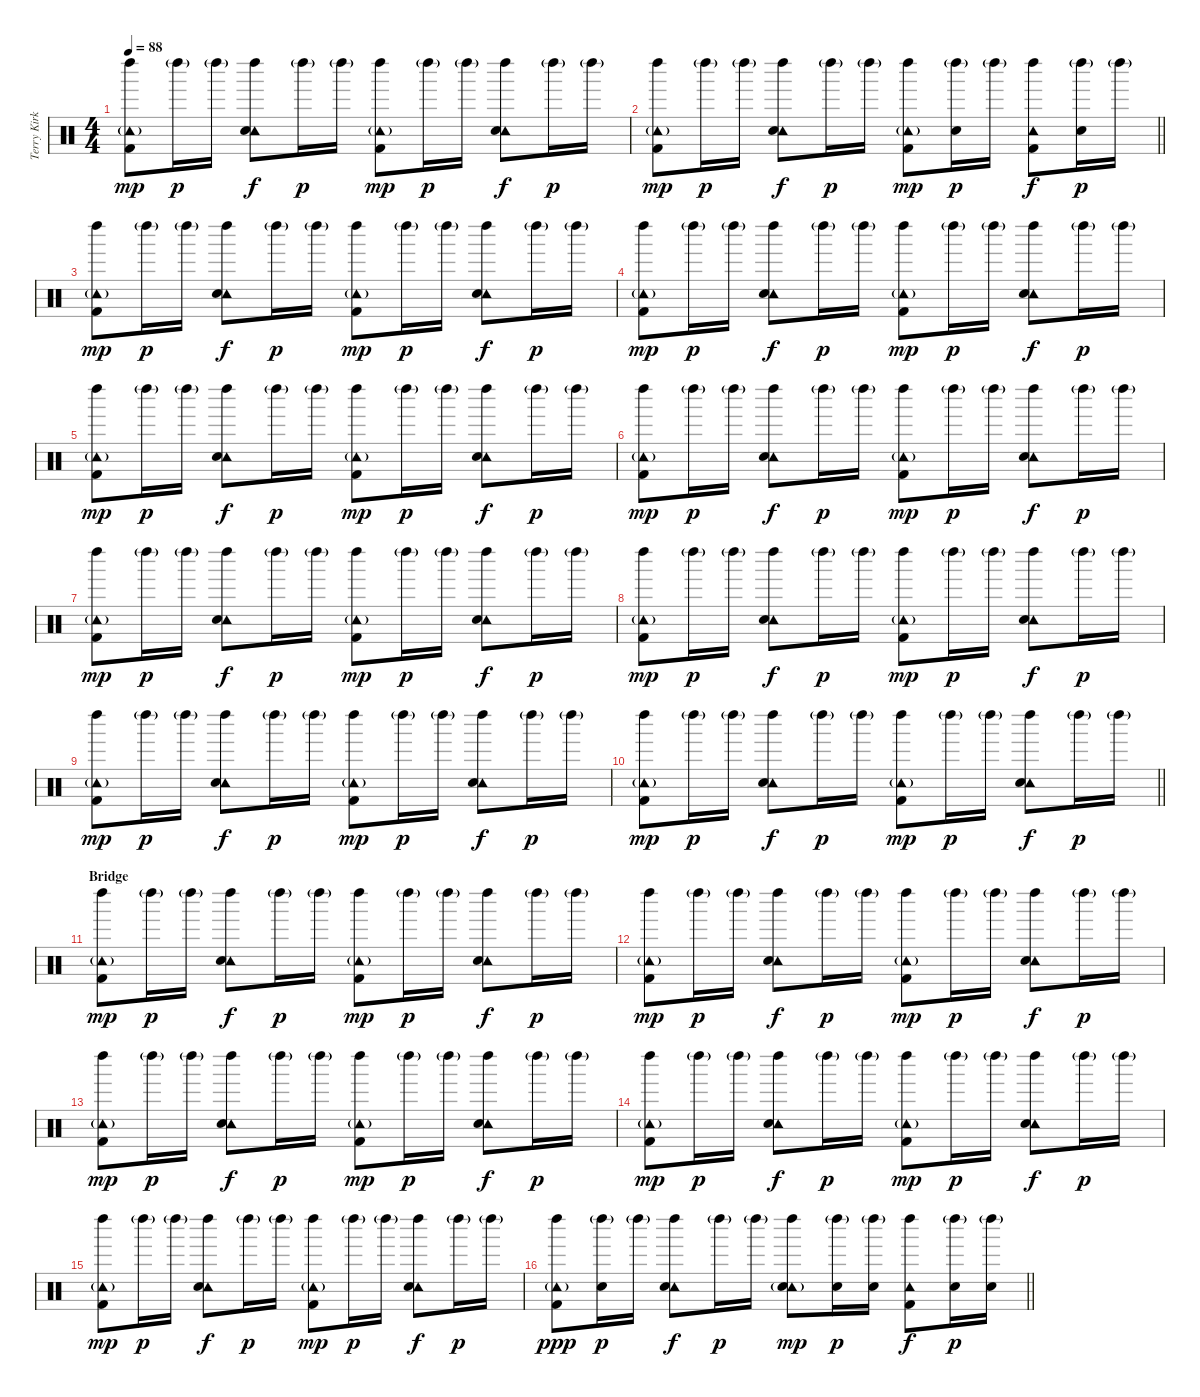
\track ("Terry Kirkbride " "Terry Kirk") {instrument percussion}
\staff {score}
\articulation defaults
\ts (4 4)
\tempo 88
\clef neutral
\ks c
("Left Maraca (hit)" "Tambourine (hit)"{g} "Kick (hit) 2").8{dy mp} "Left Maraca (hit)"{g}.16{dy p} "Left Maraca (hit)"{g}.16 ("Left Maraca (hit)" "Tambourine (hit)" "Snare (hit) 2").8{dy f} "Left Maraca (hit)"{g}.16{dy p} "Left Maraca (hit)"{g}.16 ("Left Maraca (hit)" "Tambourine (hit)"{g} "Kick (hit) 2").8{dy mp} "Left Maraca (hit)"{g}.16{dy p} "Left Maraca (hit)"{g}.16 ("Left Maraca (hit)" "Tambourine (hit)" "Snare (hit) 2").8{dy f} "Left Maraca (hit)"{g}.16{dy p} "Left Maraca (hit)"{g}.16 |
\barLineRight lightlight
("Left Maraca (hit)" "Tambourine (hit)"{g} "Kick (hit) 2").8{dy mp} "Left Maraca (hit)"{g}.16{dy p} "Left Maraca (hit)"{g}.16 ("Left Maraca (hit)" "Tambourine (hit)" "Snare (hit) 2").8{dy f} "Left Maraca (hit)"{g}.16{dy p} "Left Maraca (hit)"{g}.16 ("Left Maraca (hit)" "Tambourine (hit)"{g} "Kick (hit) 2").8{dy mp} ("Left Maraca (hit)"{g} "Snare (hit) 2").16{dy p} "Left Maraca (hit)"{g}.16 ("Left Maraca (hit)" "Tambourine (hit)" "Kick (hit) 2").8{dy f} ("Left Maraca (hit)"{g} "Snare (hit) 2").16{dy p} "Left Maraca (hit)"{g}.16 |
("Left Maraca (hit)" "Tambourine (hit)"{g} "Kick (hit) 2").8{dy mp} "Left Maraca (hit)"{g}.16{dy p} "Left Maraca (hit)"{g}.16 ("Left Maraca (hit)" "Tambourine (hit)" "Snare (hit) 2").8{dy f} "Left Maraca (hit)"{g}.16{dy p} "Left Maraca (hit)"{g}.16 ("Left Maraca (hit)" "Tambourine (hit)"{g} "Kick (hit) 2").8{dy mp} "Left Maraca (hit)"{g}.16{dy p} "Left Maraca (hit)"{g}.16 ("Left Maraca (hit)" "Tambourine (hit)" "Snare (hit) 2").8{dy f} "Left Maraca (hit)"{g}.16{dy p} "Left Maraca (hit)"{g}.16 |
("Left Maraca (hit)" "Tambourine (hit)"{g} "Kick (hit) 2").8{dy mp} "Left Maraca (hit)"{g}.16{dy p} "Left Maraca (hit)"{g}.16 ("Left Maraca (hit)" "Tambourine (hit)" "Snare (hit) 2").8{dy f} "Left Maraca (hit)"{g}.16{dy p} "Left Maraca (hit)"{g}.16 ("Left Maraca (hit)" "Tambourine (hit)"{g} "Kick (hit) 2").8{dy mp} "Left Maraca (hit)"{g}.16{dy p} "Left Maraca (hit)"{g}.16 ("Left Maraca (hit)" "Tambourine (hit)" "Snare (hit) 2").8{dy f} "Left Maraca (hit)"{g}.16{dy p} "Left Maraca (hit)"{g}.16 |
("Left Maraca (hit)" "Tambourine (hit)"{g} "Kick (hit) 2").8{dy mp} "Left Maraca (hit)"{g}.16{dy p} "Left Maraca (hit)"{g}.16 ("Left Maraca (hit)" "Tambourine (hit)" "Snare (hit) 2").8{dy f} "Left Maraca (hit)"{g}.16{dy p} "Left Maraca (hit)"{g}.16 ("Left Maraca (hit)" "Tambourine (hit)"{g} "Kick (hit) 2").8{dy mp} "Left Maraca (hit)"{g}.16{dy p} "Left Maraca (hit)"{g}.16 ("Left Maraca (hit)" "Tambourine (hit)" "Snare (hit) 2").8{dy f} "Left Maraca (hit)"{g}.16{dy p} "Left Maraca (hit)"{g}.16 |
("Left Maraca (hit)" "Tambourine (hit)"{g} "Kick (hit) 2").8{dy mp} "Left Maraca (hit)"{g}.16{dy p} "Left Maraca (hit)"{g}.16 ("Left Maraca (hit)" "Tambourine (hit)" "Snare (hit) 2").8{dy f} "Left Maraca (hit)"{g}.16{dy p} "Left Maraca (hit)"{g}.16 ("Left Maraca (hit)" "Tambourine (hit)"{g} "Kick (hit) 2").8{dy mp} "Left Maraca (hit)"{g}.16{dy p} "Left Maraca (hit)"{g}.16 ("Left Maraca (hit)" "Tambourine (hit)" "Snare (hit) 2").8{dy f} "Left Maraca (hit)"{g}.16{dy p} "Left Maraca (hit)"{g}.16 |
("Left Maraca (hit)" "Tambourine (hit)"{g} "Kick (hit) 2").8{dy mp} "Left Maraca (hit)"{g}.16{dy p} "Left Maraca (hit)"{g}.16 ("Left Maraca (hit)" "Tambourine (hit)" "Snare (hit) 2").8{dy f} "Left Maraca (hit)"{g}.16{dy p} "Left Maraca (hit)"{g}.16 ("Left Maraca (hit)" "Tambourine (hit)"{g} "Kick (hit) 2").8{dy mp} "Left Maraca (hit)"{g}.16{dy p} "Left Maraca (hit)"{g}.16 ("Left Maraca (hit)" "Tambourine (hit)" "Snare (hit) 2").8{dy f} "Left Maraca (hit)"{g}.16{dy p} "Left Maraca (hit)"{g}.16 |
("Left Maraca (hit)" "Tambourine (hit)"{g} "Kick (hit) 2").8{dy mp} "Left Maraca (hit)"{g}.16{dy p} "Left Maraca (hit)"{g}.16 ("Left Maraca (hit)" "Tambourine (hit)" "Snare (hit) 2").8{dy f} "Left Maraca (hit)"{g}.16{dy p} "Left Maraca (hit)"{g}.16 ("Left Maraca (hit)" "Tambourine (hit)"{g} "Kick (hit) 2").8{dy mp} "Left Maraca (hit)"{g}.16{dy p} "Left Maraca (hit)"{g}.16 ("Left Maraca (hit)" "Tambourine (hit)" "Snare (hit) 2").8{dy f} "Left Maraca (hit)"{g}.16{dy p} "Left Maraca (hit)"{g}.16 |
("Left Maraca (hit)" "Tambourine (hit)"{g} "Kick (hit) 2").8{dy mp} "Left Maraca (hit)"{g}.16{dy p} "Left Maraca (hit)"{g}.16 ("Left Maraca (hit)" "Tambourine (hit)" "Snare (hit) 2").8{dy f} "Left Maraca (hit)"{g}.16{dy p} "Left Maraca (hit)"{g}.16 ("Left Maraca (hit)" "Tambourine (hit)"{g} "Kick (hit) 2").8{dy mp} "Left Maraca (hit)"{g}.16{dy p} "Left Maraca (hit)"{g}.16 ("Left Maraca (hit)" "Tambourine (hit)" "Snare (hit) 2").8{dy f} "Left Maraca (hit)"{g}.16{dy p} "Left Maraca (hit)"{g}.16 |
\barLineRight lightlight
("Left Maraca (hit)" "Tambourine (hit)"{g} "Kick (hit) 2").8{dy mp} "Left Maraca (hit)"{g}.16{dy p} "Left Maraca (hit)"{g}.16 ("Left Maraca (hit)" "Tambourine (hit)" "Snare (hit) 2").8{dy f} "Left Maraca (hit)"{g}.16{dy p} "Left Maraca (hit)"{g}.16 ("Left Maraca (hit)" "Tambourine (hit)"{g} "Kick (hit) 2").8{dy mp} "Left Maraca (hit)"{g}.16{dy p} "Left Maraca (hit)"{g}.16 ("Left Maraca (hit)" "Tambourine (hit)" "Snare (hit) 2").8{dy f} "Left Maraca (hit)"{g}.16{dy p} "Left Maraca (hit)"{g}.16 |
\section ("" "Bridge")
("Left Maraca (hit)" "Tambourine (hit)"{g} "Kick (hit) 2").8{dy mp} "Left Maraca (hit)"{g}.16{dy p} "Left Maraca (hit)"{g}.16 ("Left Maraca (hit)" "Tambourine (hit)" "Snare (hit) 2").8{dy f} "Left Maraca (hit)"{g}.16{dy p} "Left Maraca (hit)"{g}.16 ("Left Maraca (hit)" "Tambourine (hit)"{g} "Kick (hit) 2").8{dy mp} "Left Maraca (hit)"{g}.16{dy p} "Left Maraca (hit)"{g}.16 ("Left Maraca (hit)" "Tambourine (hit)" "Snare (hit) 2").8{dy f} "Left Maraca (hit)"{g}.16{dy p} "Left Maraca (hit)"{g}.16 |
("Left Maraca (hit)" "Tambourine (hit)"{g} "Kick (hit) 2").8{dy mp} "Left Maraca (hit)"{g}.16{dy p} "Left Maraca (hit)"{g}.16 ("Left Maraca (hit)" "Tambourine (hit)" "Snare (hit) 2").8{dy f} "Left Maraca (hit)"{g}.16{dy p} "Left Maraca (hit)"{g}.16 ("Left Maraca (hit)" "Tambourine (hit)"{g} "Kick (hit) 2").8{dy mp} "Left Maraca (hit)"{g}.16{dy p} "Left Maraca (hit)"{g}.16 ("Left Maraca (hit)" "Tambourine (hit)" "Snare (hit) 2").8{dy f} "Left Maraca (hit)"{g}.16{dy p} "Left Maraca (hit)"{g}.16 |
("Left Maraca (hit)" "Tambourine (hit)"{g} "Kick (hit) 2").8{dy mp} "Left Maraca (hit)"{g}.16{dy p} "Left Maraca (hit)"{g}.16 ("Left Maraca (hit)" "Tambourine (hit)" "Snare (hit) 2").8{dy f} "Left Maraca (hit)"{g}.16{dy p} "Left Maraca (hit)"{g}.16 ("Left Maraca (hit)" "Tambourine (hit)"{g} "Kick (hit) 2").8{dy mp} "Left Maraca (hit)"{g}.16{dy p} "Left Maraca (hit)"{g}.16 ("Left Maraca (hit)" "Tambourine (hit)" "Snare (hit) 2").8{dy f} "Left Maraca (hit)"{g}.16{dy p} "Left Maraca (hit)"{g}.16 |
("Left Maraca (hit)" "Tambourine (hit)"{g} "Kick (hit) 2").8{dy mp} "Left Maraca (hit)"{g}.16{dy p} "Left Maraca (hit)"{g}.16 ("Left Maraca (hit)" "Tambourine (hit)" "Snare (hit) 2").8{dy f} "Left Maraca (hit)"{g}.16{dy p} "Left Maraca (hit)"{g}.16 ("Left Maraca (hit)" "Tambourine (hit)"{g} "Kick (hit) 2").8{dy mp} "Left Maraca (hit)"{g}.16{dy p} "Left Maraca (hit)"{g}.16 ("Left Maraca (hit)" "Tambourine (hit)" "Snare (hit) 2").8{dy f} "Left Maraca (hit)"{g}.16{dy p} "Left Maraca (hit)"{g}.16 |
("Left Maraca (hit)" "Tambourine (hit)"{g} "Kick (hit) 2").8{dy mp} "Left Maraca (hit)"{g}.16{dy p} "Left Maraca (hit)"{g}.16 ("Left Maraca (hit)" "Tambourine (hit)" "Snare (hit) 2").8{dy f} "Left Maraca (hit)"{g}.16{dy p} "Left Maraca (hit)"{g}.16 ("Left Maraca (hit)" "Tambourine (hit)"{g} "Kick (hit) 2").8{dy mp} "Left Maraca (hit)"{g}.16{dy p} "Left Maraca (hit)"{g}.16 ("Left Maraca (hit)" "Tambourine (hit)" "Snare (hit) 2").8{dy f} "Left Maraca (hit)"{g}.16{dy p} "Left Maraca (hit)"{g}.16 |
\barLineRight lightlight
("Left Maraca (hit)" "Tambourine (hit)"{g} "Kick (hit) 2").8{dy ppp} ("Left Maraca (hit)"{g} "Snare (hit) 2").16{dy p} "Left Maraca (hit)"{g}.16 ("Left Maraca (hit)" "Tambourine (hit)" "Snare (hit) 2").8{dy f} "Left Maraca (hit)"{g}.16{dy p} "Left Maraca (hit)"{g}.16 ("Left Maraca (hit)" "Tambourine (hit)"{g} "Snare (hit) 2").8{dy mp} ("Left Maraca (hit)"{g} "Snare (hit) 2").16{dy p} ("Left Maraca (hit)"{g} "Snare (hit) 2").16 ("Left Maraca (hit)" "Tambourine (hit)" "Kick (hit) 2").8{dy f} ("Left Maraca (hit)"{g} "Snare (hit) 2").16{dy p} ("Left Maraca (hit)"{g} "Snare (hit) 2").16
